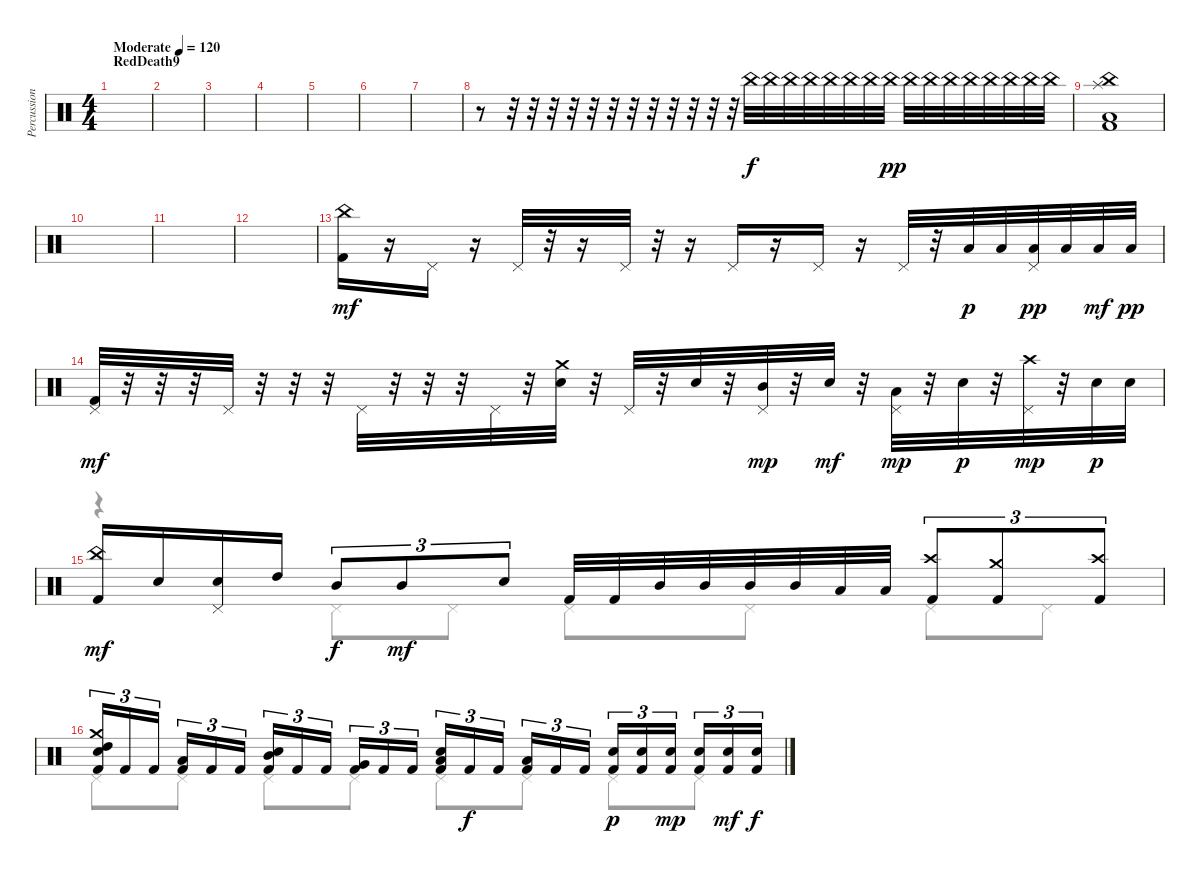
\track ("Percussion" "Percussion") {instrument percussion}
\staff {score}
\articulation defaults
\voice
\ts (4 4)
\section ("" "RedDeath9")
\tempo (120 "Moderate")
\clef neutral
\ks c
|
|
|
|
|
|
|
r.8 r.32 r.32 r.32 r.32 r.32 r.32 r.32 r.32 r.32 r.32 r.32 r.32 "China (hit)".32 "China (hit)".32 "China (hit)".32 "China (hit)".32 "China (hit)".32 "China (hit)".32 "China (hit)".32 "China (hit)".32{dy pp} "China (hit)".32 "China (hit)".32 "China (hit)".32 "China (hit)".32 "China (hit)".32 "China (hit)".32 "China (hit)".32 "China (hit)".32 |
("China (hit)" "Splash (hit)" "Low Floor Tom (hit)" "Kick (hit) 2").1 |
|
|
|
("China (hit)" "Kick (hit) 2").16{dy mf} r.16 "Pedal Hi-Hat (hit)".16 r.16 "Pedal Hi-Hat (hit)".32 r.32 r.16 "Pedal Hi-Hat (hit)".32 r.32 r.16 "Pedal Hi-Hat (hit)".16 r.16 "Pedal Hi-Hat (hit)".16 r.16 "Pedal Hi-Hat (hit)".32 r.32 "Low Tom (hit)".32{dy p} "Low Tom (hit)".32 ("Pedal Hi-Hat (hit)" "Low Floor Tom (hit)").32{dy pp} "Low Floor Tom (hit)".32 "Low Floor Tom (hit)".32{dy mf} "Low Floor Tom (hit)".32{dy pp} |
("Pedal Hi-Hat (hit)" "Kick (hit) 2").32{dy mf} r.32 r.32 r.32 "Pedal Hi-Hat (hit)".32 r.32 r.32 r.32 "Pedal Hi-Hat (hit)".32 r.32 r.32 r.32 "Pedal Hi-Hat (hit)".32 r.32 ("Crash medium (hit)" "Electric Snare (hit)").32 r.32 "Pedal Hi-Hat (hit)".32 r.32 "Electric Snare (hit)".32 r.32 ("Pedal Hi-Hat (hit)" "Mid Tom (hit)").32{dy mp} r.32 "Electric Snare (hit)".32{dy mf} r.32 ("Pedal Hi-Hat (hit)" "Low Tom (hit)").32{dy mp} r.32 "Electric Snare (hit)".32{dy p} r.32 ("Pedal Hi-Hat (hit)" "Crash high (hit)").32{dy mp} r.32 "Electric Snare (hit)".32{dy p} "Electric Snare (hit)".32 |
("China (hit)" "Kick (hit) 2").16{dy mf} "Electric Snare (hit)".16 ("Pedal Hi-Hat (hit)" "Electric Snare (hit)").16 "High Tom (hit)".16 "Mid Tom (hit)".8{tu (3 2) dy f} "Mid Tom (hit)".8{tu (3 2) dy mf} "Electric Snare (hit)".8{tu (3 2)} "Kick (hit) 2".32 "Kick (hit) 2".32 "Mid Tom (hit)".32 "Mid Tom (hit)".32 "Mid Tom (hit)".32 "Mid Tom (hit)".32 "Low Tom (hit)".32 "Low Tom (hit)".32 ("Crash high (hit)" "Kick (hit) 2").8{tu (3 2)} ("Crash medium (hit)" "Kick (hit) 2").8{tu (3 2)} ("Crash high (hit)" "Kick (hit) 2").8{tu (3 2)} |
("Crash medium (hit)" "High Tom (hit)" "Electric Snare (hit)" "Kick (hit) 2").16{tu (3 2)} "Kick (hit) 2".16{tu (3 2)} "Kick (hit) 2".16{tu (3 2) beam splitsecondary} ("Low Tom (hit)" "Kick (hit) 2").16{tu (3 2)} "Kick (hit) 2".16{tu (3 2)} "Kick (hit) 2".16{tu (3 2)} ("Mid Tom (hit)" "Electric Snare (hit)" "Kick (hit) 2").16{tu (3 2)} "Kick (hit) 2".16{tu (3 2)} "Kick (hit) 2".16{tu (3 2) beam splitsecondary} ("Very Low Tom (hit)" "Kick (hit) 2").16{tu (3 2)} "Kick (hit) 2".16{tu (3 2)} "Kick (hit) 2".16{tu (3 2)} ("Low Tom (hit)" "Electric Snare (hit)" "Kick (hit) 2").16{tu (3 2)} "Kick (hit) 2".16{tu (3 2) dy f} "Kick (hit) 2".16{tu (3 2) beam splitsecondary} ("Low Floor Tom (hit)" "Kick (hit) 2").16{tu (3 2)} "Kick (hit) 2".16{tu (3 2)} "Kick (hit) 2".16{tu (3 2)} ("Electric Snare (hit)" "Kick (hit) 2").16{tu (3 2) dy p} ("Electric Snare (hit)" "Kick (hit) 2").16{tu (3 2)} ("Electric Snare (hit)" "Kick (hit) 2").16{tu (3 2) dy mp beam splitsecondary} ("Electric Snare (hit)" "Kick (hit) 2").16{tu (3 2)} ("Electric Snare (hit)" "Kick (hit) 2").16{tu (3 2) dy mf} ("Electric Snare (hit)" "Kick (hit) 2").16{tu (3 2) dy f}
\voice
\clef neutral
\ottava regular
\simile none
\ks c
|
|
|
|
|
|
|
|
|
|
|
|
|
|
r.4 "Pedal Hi-Hat (hit)".8 "Pedal Hi-Hat (hit)".8 "Pedal Hi-Hat (hit)".8 "Pedal Hi-Hat (hit)".8 "Pedal Hi-Hat (hit)".8 "Pedal Hi-Hat (hit)".8 |
"Pedal Hi-Hat (hit)".8 "Pedal Hi-Hat (hit)".8 "Pedal Hi-Hat (hit)".8 "Pedal Hi-Hat (hit)".8 "Pedal Hi-Hat (hit)".8 "Pedal Hi-Hat (hit)".8 "Pedal Hi-Hat (hit)".8 "Pedal Hi-Hat (hit)".8
